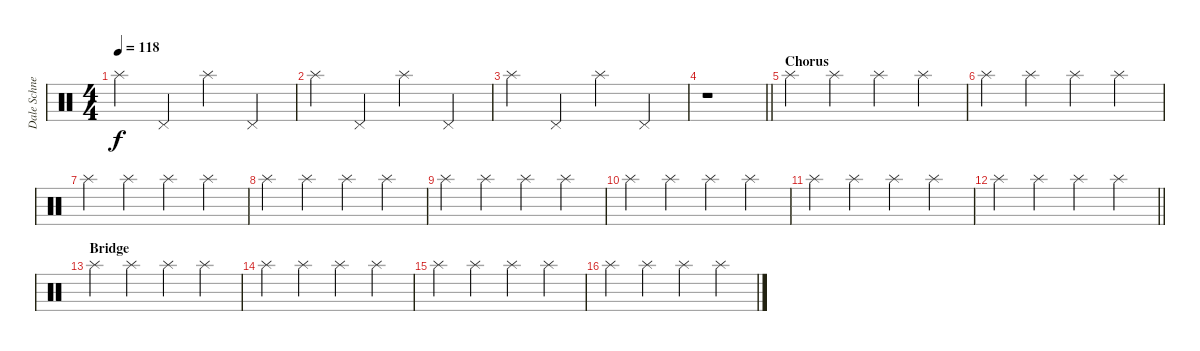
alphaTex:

\track ("Dale Schnettler (Drums)" "Dale Schne") {instrument percussion}
\staff {score}
\articulation defaults
\ts (4 4)
\tempo 118
\clef neutral
\ks c "Splash (hit)".4{dy f} "Pedal Hi-Hat (hit)".4 "Splash (hit)".4 "Pedal Hi-Hat (hit)".4
|
"Splash (hit)".4 "Pedal Hi-Hat (hit)".4 "Splash (hit)".4 "Pedal Hi-Hat (hit)".4 |
"Splash (hit)".4 "Pedal Hi-Hat (hit)".4 "Splash (hit)".4 "Pedal Hi-Hat (hit)".4 |
\barLineRight lightlight
r.1 |
\section ("" "Chorus")
"Splash (hit)".4 "Splash (hit)".4 "Splash (hit)".4 "Splash (hit)".4 |
"Splash (hit)".4 "Splash (hit)".4 "Splash (hit)".4 "Splash (hit)".4 |
"Splash (hit)".4 "Splash (hit)".4 "Splash (hit)".4 "Splash (hit)".4 |
"Splash (hit)".4 "Splash (hit)".4 "Splash (hit)".4 "Splash (hit)".4 |
"Splash (hit)".4 "Splash (hit)".4 "Splash (hit)".4 "Splash (hit)".4 |
"Splash (hit)".4 "Splash (hit)".4 "Splash (hit)".4 "Splash (hit)".4 |
"Splash (hit)".4 "Splash (hit)".4 "Splash (hit)".4 "Splash (hit)".4 |
\barLineRight lightlight "Splash (hit)".4 "Splash (hit)".4 "Splash (hit)".4 "Splash (hit)".4
|
\section ("" "Bridge")
"Splash (hit)".4 "Splash (hit)".4 "Splash (hit)".4 "Splash (hit)".4 |
"Splash (hit)".4 "Splash (hit)".4 "Splash (hit)".4 "Splash (hit)".4 |
"Splash (hit)".4 "Splash (hit)".4 "Splash (hit)".4 "Splash (hit)".4 |
"Splash (hit)".4 "Splash (hit)".4 "Splash (hit)".4 "Splash (hit)".4
